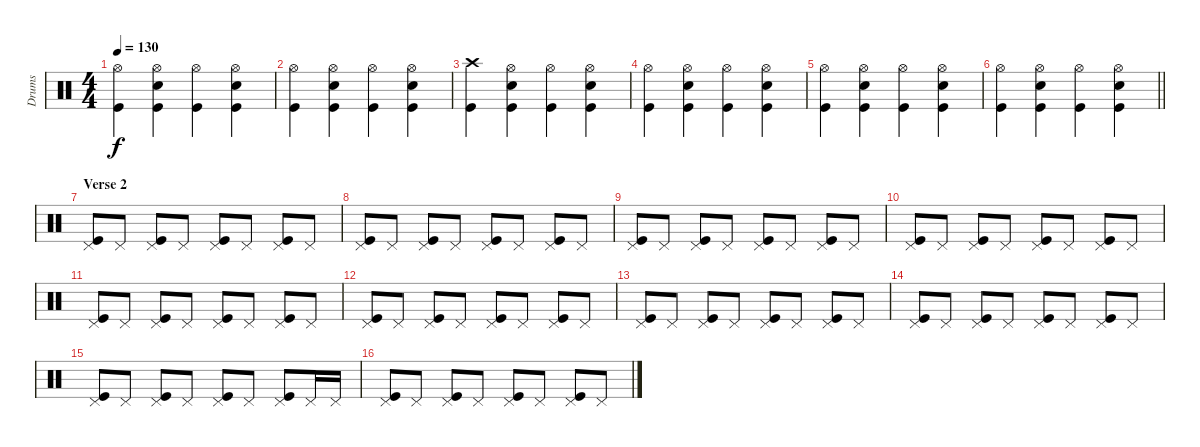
\track ("Drums" "Drums") {instrument percussion}
\staff {score}
\articulation defaults
\ts (4 4)
\tempo 130
\clef neutral
\ks c
("Hi-Hat (open)" "Kick (hit)").4{dy f} ("Kick (hit)" "Snare (hit) 2" "Hi-Hat (open)").4 ("Hi-Hat (open)" "Kick (hit)").4 ("Hi-Hat (open)" "Snare (hit) 2" "Kick (hit)").4 |
("Hi-Hat (open)" "Kick (hit)").4 ("Kick (hit)" "Snare (hit) 2" "Hi-Hat (open)").4 ("Hi-Hat (open)" "Kick (hit)").4 ("Hi-Hat (open)" "Snare (hit) 2" "Kick (hit)").4 |
("Crash high (hit)" "Kick (hit)").4 ("Kick (hit)" "Snare (hit) 2" "Hi-Hat (open)").4 ("Hi-Hat (open)" "Kick (hit)").4 ("Hi-Hat (open)" "Snare (hit) 2" "Kick (hit)").4 |
("Hi-Hat (open)" "Kick (hit)").4 ("Kick (hit)" "Snare (hit) 2" "Hi-Hat (open)").4 ("Hi-Hat (open)" "Kick (hit)").4 ("Hi-Hat (open)" "Snare (hit) 2" "Kick (hit)").4 |
("Hi-Hat (open)" "Kick (hit)").4 ("Kick (hit)" "Snare (hit) 2" "Hi-Hat (open)").4 ("Hi-Hat (open)" "Kick (hit)").4 ("Hi-Hat (open)" "Snare (hit) 2" "Kick (hit)").4 |
\barLineRight lightlight
("Hi-Hat (open)" "Kick (hit)").4 ("Kick (hit)" "Snare (hit) 2" "Hi-Hat (open)").4 ("Hi-Hat (open)" "Kick (hit)").4 ("Hi-Hat (open)" "Snare (hit) 2" "Kick (hit)").4 |
\section ("" "Verse 2")
("Kick (hit)" "Pedal Hi-Hat (hit)").8 "Pedal Hi-Hat (hit)".8 ("Kick (hit)" "Pedal Hi-Hat (hit)").8 "Pedal Hi-Hat (hit)".8 ("Kick (hit)" "Pedal Hi-Hat (hit)").8 "Pedal Hi-Hat (hit)".8 ("Kick (hit)" "Pedal Hi-Hat (hit)").8 "Pedal Hi-Hat (hit)".8 |
("Kick (hit)" "Pedal Hi-Hat (hit)").8 "Pedal Hi-Hat (hit)".8 ("Kick (hit)" "Pedal Hi-Hat (hit)").8 "Pedal Hi-Hat (hit)".8 ("Kick (hit)" "Pedal Hi-Hat (hit)").8 "Pedal Hi-Hat (hit)".8 ("Kick (hit)" "Pedal Hi-Hat (hit)").8 "Pedal Hi-Hat (hit)".8 |
("Kick (hit)" "Pedal Hi-Hat (hit)").8 "Pedal Hi-Hat (hit)".8 ("Kick (hit)" "Pedal Hi-Hat (hit)").8 "Pedal Hi-Hat (hit)".8 ("Kick (hit)" "Pedal Hi-Hat (hit)").8 "Pedal Hi-Hat (hit)".8 ("Kick (hit)" "Pedal Hi-Hat (hit)").8 "Pedal Hi-Hat (hit)".8 |
("Kick (hit)" "Pedal Hi-Hat (hit)").8 "Pedal Hi-Hat (hit)".8 ("Kick (hit)" "Pedal Hi-Hat (hit)").8 "Pedal Hi-Hat (hit)".8 ("Kick (hit)" "Pedal Hi-Hat (hit)").8 "Pedal Hi-Hat (hit)".8 ("Kick (hit)" "Pedal Hi-Hat (hit)").8 "Pedal Hi-Hat (hit)".8 |
("Kick (hit)" "Pedal Hi-Hat (hit)").8 "Pedal Hi-Hat (hit)".8 ("Kick (hit)" "Pedal Hi-Hat (hit)").8 "Pedal Hi-Hat (hit)".8 ("Kick (hit)" "Pedal Hi-Hat (hit)").8 "Pedal Hi-Hat (hit)".8 ("Kick (hit)" "Pedal Hi-Hat (hit)").8 "Pedal Hi-Hat (hit)".8 |
("Kick (hit)" "Pedal Hi-Hat (hit)").8 "Pedal Hi-Hat (hit)".8 ("Kick (hit)" "Pedal Hi-Hat (hit)").8 "Pedal Hi-Hat (hit)".8 ("Kick (hit)" "Pedal Hi-Hat (hit)").8 "Pedal Hi-Hat (hit)".8 ("Kick (hit)" "Pedal Hi-Hat (hit)").8 "Pedal Hi-Hat (hit)".8 |
("Kick (hit)" "Pedal Hi-Hat (hit)").8 "Pedal Hi-Hat (hit)".8 ("Kick (hit)" "Pedal Hi-Hat (hit)").8 "Pedal Hi-Hat (hit)".8 ("Kick (hit)" "Pedal Hi-Hat (hit)").8 "Pedal Hi-Hat (hit)".8 ("Kick (hit)" "Pedal Hi-Hat (hit)").8 "Pedal Hi-Hat (hit)".8 |
("Kick (hit)" "Pedal Hi-Hat (hit)").8 "Pedal Hi-Hat (hit)".8 ("Kick (hit)" "Pedal Hi-Hat (hit)").8 "Pedal Hi-Hat (hit)".8 ("Kick (hit)" "Pedal Hi-Hat (hit)").8 "Pedal Hi-Hat (hit)".8 ("Kick (hit)" "Pedal Hi-Hat (hit)").8 "Pedal Hi-Hat (hit)".8 |
("Kick (hit)" "Pedal Hi-Hat (hit)").8 "Pedal Hi-Hat (hit)".8 ("Kick (hit)" "Pedal Hi-Hat (hit)").8 "Pedal Hi-Hat (hit)".8 ("Kick (hit)" "Pedal Hi-Hat (hit)").8 "Pedal Hi-Hat (hit)".8 ("Kick (hit)" "Pedal Hi-Hat (hit)").8 "Pedal Hi-Hat (hit)".16 "Pedal Hi-Hat (hit)".16 |
("Kick (hit)" "Pedal Hi-Hat (hit)").8 "Pedal Hi-Hat (hit)".8 ("Kick (hit)" "Pedal Hi-Hat (hit)").8 "Pedal Hi-Hat (hit)".8 ("Kick (hit)" "Pedal Hi-Hat (hit)").8 "Pedal Hi-Hat (hit)".8 ("Kick (hit)" "Pedal Hi-Hat (hit)").8 "Pedal Hi-Hat (hit)".8
